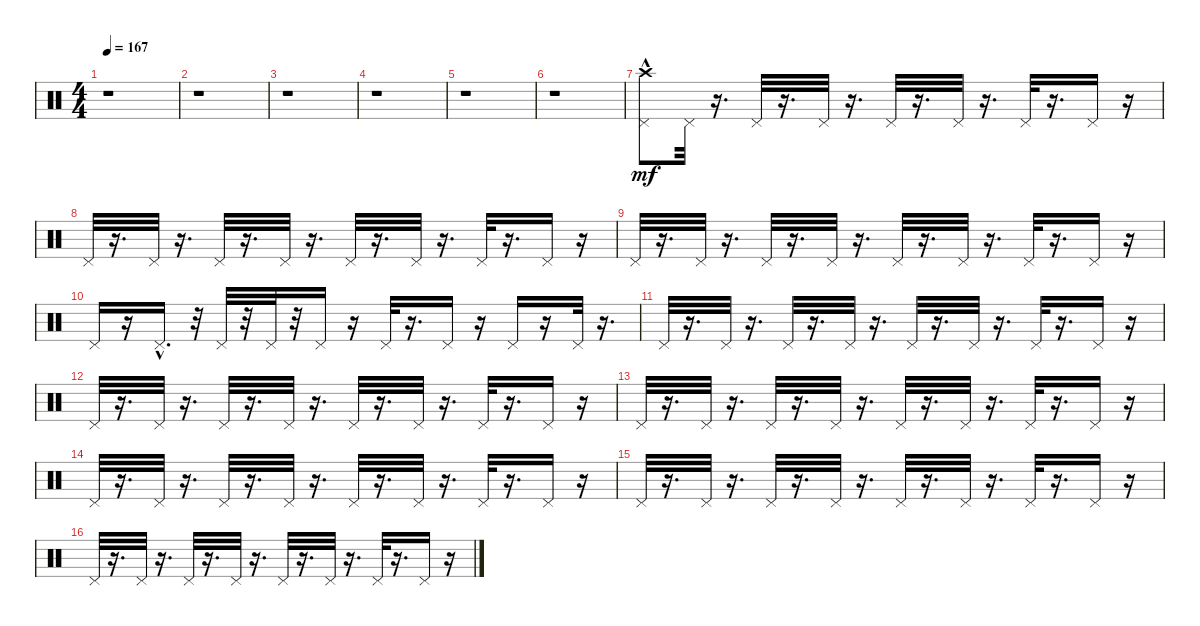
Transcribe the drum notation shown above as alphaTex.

\track "" {instrument percussion}
\staff {score}
\articulation defaults
\ts (4 4)
\tempo 167
\clef neutral
\ks c
r.1{dy mf} |
r.1 |
r.1 |
r.1 |
r.1 |
r.1 |
("Crash high (hit)"{hac} "Pedal Hi-Hat (hit)").8 "Pedal Hi-Hat (hit)".32 r.16{d} "Pedal Hi-Hat (hit)".32 r.16{d} "Pedal Hi-Hat (hit)".32 r.16{d} "Pedal Hi-Hat (hit)".32 r.16{d} "Pedal Hi-Hat (hit)".32 r.16{d} "Pedal Hi-Hat (hit)".32 r.16{d} "Pedal Hi-Hat (hit)".16 r.16 |
"Pedal Hi-Hat (hit)".32 r.16{d} "Pedal Hi-Hat (hit)".32 r.16{d} "Pedal Hi-Hat (hit)".32 r.16{d} "Pedal Hi-Hat (hit)".32 r.16{d} "Pedal Hi-Hat (hit)".32 r.16{d} "Pedal Hi-Hat (hit)".32 r.16{d} "Pedal Hi-Hat (hit)".32 r.16{d} "Pedal Hi-Hat (hit)".16 r.16 |
"Pedal Hi-Hat (hit)".32 r.16{d} "Pedal Hi-Hat (hit)".32 r.16{d} "Pedal Hi-Hat (hit)".32 r.16{d} "Pedal Hi-Hat (hit)".32 r.16{d} "Pedal Hi-Hat (hit)".32 r.16{d} "Pedal Hi-Hat (hit)".32 r.16{d} "Pedal Hi-Hat (hit)".32 r.16{d} "Pedal Hi-Hat (hit)".16 r.16 |
"Pedal Hi-Hat (hit)".16 r.16 "Pedal Hi-Hat (hit)"{hac}.16{d} r.32 "Pedal Hi-Hat (hit)".32 r.32 "Pedal Hi-Hat (hit)".32 r.32 "Pedal Hi-Hat (hit)".16 r.16 "Pedal Hi-Hat (hit)".32 r.16{d} "Pedal Hi-Hat (hit)".16 r.16 "Pedal Hi-Hat (hit)".16 r.16 "Pedal Hi-Hat (hit)".32 r.16{d} |
"Pedal Hi-Hat (hit)".32 r.16{d} "Pedal Hi-Hat (hit)".32 r.16{d} "Pedal Hi-Hat (hit)".32 r.16{d} "Pedal Hi-Hat (hit)".32 r.16{d} "Pedal Hi-Hat (hit)".32 r.16{d} "Pedal Hi-Hat (hit)".32 r.16{d} "Pedal Hi-Hat (hit)".32 r.16{d} "Pedal Hi-Hat (hit)".16 r.16 |
"Pedal Hi-Hat (hit)".32 r.16{d} "Pedal Hi-Hat (hit)".32 r.16{d} "Pedal Hi-Hat (hit)".32 r.16{d} "Pedal Hi-Hat (hit)".32 r.16{d} "Pedal Hi-Hat (hit)".32 r.16{d} "Pedal Hi-Hat (hit)".32 r.16{d} "Pedal Hi-Hat (hit)".32 r.16{d} "Pedal Hi-Hat (hit)".16 r.16 |
"Pedal Hi-Hat (hit)".32 r.16{d} "Pedal Hi-Hat (hit)".32 r.16{d} "Pedal Hi-Hat (hit)".32 r.16{d} "Pedal Hi-Hat (hit)".32 r.16{d} "Pedal Hi-Hat (hit)".32 r.16{d} "Pedal Hi-Hat (hit)".32 r.16{d} "Pedal Hi-Hat (hit)".32 r.16{d} "Pedal Hi-Hat (hit)".16 r.16 |
"Pedal Hi-Hat (hit)".32 r.16{d} "Pedal Hi-Hat (hit)".32 r.16{d} "Pedal Hi-Hat (hit)".32 r.16{d} "Pedal Hi-Hat (hit)".32 r.16{d} "Pedal Hi-Hat (hit)".32 r.16{d} "Pedal Hi-Hat (hit)".32 r.16{d} "Pedal Hi-Hat (hit)".32 r.16{d} "Pedal Hi-Hat (hit)".16 r.16 |
"Pedal Hi-Hat (hit)".32 r.16{d} "Pedal Hi-Hat (hit)".32 r.16{d} "Pedal Hi-Hat (hit)".32 r.16{d} "Pedal Hi-Hat (hit)".32 r.16{d} "Pedal Hi-Hat (hit)".32 r.16{d} "Pedal Hi-Hat (hit)".32 r.16{d} "Pedal Hi-Hat (hit)".32 r.16{d} "Pedal Hi-Hat (hit)".16 r.16 |
"Pedal Hi-Hat (hit)".32 r.16{d} "Pedal Hi-Hat (hit)".32 r.16{d} "Pedal Hi-Hat (hit)".32 r.16{d} "Pedal Hi-Hat (hit)".32 r.16{d} "Pedal Hi-Hat (hit)".32 r.16{d} "Pedal Hi-Hat (hit)".32 r.16{d} "Pedal Hi-Hat (hit)".32 r.16{d} "Pedal Hi-Hat (hit)".16 r.16
